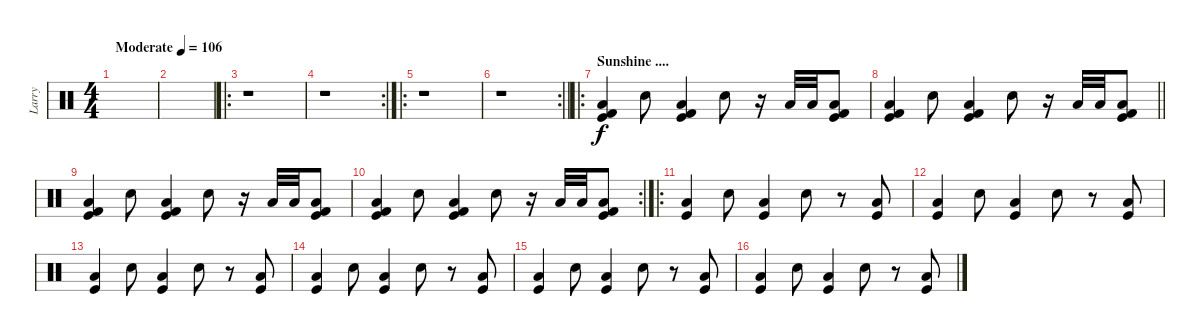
\track ("Larry" "Larry") {instrument percussion}
\staff {score}
\articulation defaults
\voice
\ts (4 4)
\tempo (106 "Moderate")
\clef neutral
\ks c
|
|
\ro
r.1 |
\rc 2
r.1 |
\ro
r.1 |
\rc 2
\barLineRight lightlight
r.1 |
\ro
\section ("" "Sunshine ....")
("Low Tom (hit)" "Kick (hit) 2" "Kick (hit)").4 "Snare (hit) 2".8 ("Low Tom (hit)" "Kick (hit) 2" "Kick (hit)").4 "Snare (hit) 2".8 r.16 "Low Tom (hit)".32 "Low Tom (hit)".32 ("Low Tom (hit)" "Kick (hit) 2" "Kick (hit)").8 |
\barLineRight lightlight
("Low Tom (hit)" "Kick (hit) 2" "Kick (hit)").4 "Snare (hit) 2".8 ("Low Tom (hit)" "Kick (hit) 2" "Kick (hit)").4 "Snare (hit) 2".8 r.16 "Low Tom (hit)".32 "Low Tom (hit)".32 ("Low Tom (hit)" "Kick (hit) 2" "Kick (hit)").8 |
("Low Tom (hit)" "Kick (hit) 2" "Kick (hit)").4 "Snare (hit) 2".8 ("Low Tom (hit)" "Kick (hit) 2" "Kick (hit)").4 "Snare (hit) 2".8 r.16 "Low Tom (hit)".32 "Low Tom (hit)".32 ("Low Tom (hit)" "Kick (hit) 2" "Kick (hit)").8 |
\rc 2
("Low Tom (hit)" "Kick (hit) 2" "Kick (hit)").4 "Snare (hit) 2".8 ("Low Tom (hit)" "Kick (hit) 2" "Kick (hit)").4 "Snare (hit) 2".8 r.16 "Low Tom (hit)".32 "Low Tom (hit)".32 ("Low Tom (hit)" "Kick (hit) 2" "Kick (hit)").8 |
\ro
("Low Tom (hit)" "Kick (hit)").4 "Snare (hit) 2".8 ("Low Tom (hit)" "Kick (hit)").4 "Snare (hit) 2".8 r.8 ("Low Tom (hit)" "Kick (hit)").8 |
("Low Tom (hit)" "Kick (hit)").4 "Snare (hit) 2".8 ("Low Tom (hit)" "Kick (hit)").4 "Snare (hit) 2".8 r.8 ("Low Tom (hit)" "Kick (hit)").8 |
("Low Tom (hit)" "Kick (hit)").4 "Snare (hit) 2".8 ("Low Tom (hit)" "Kick (hit)").4 "Snare (hit) 2".8 r.8 ("Low Tom (hit)" "Kick (hit)").8 |
("Low Tom (hit)" "Kick (hit)").4 "Snare (hit) 2".8 ("Low Tom (hit)" "Kick (hit)").4 "Snare (hit) 2".8 r.8 ("Low Tom (hit)" "Kick (hit)").8 |
("Low Tom (hit)" "Kick (hit)").4 "Snare (hit) 2".8 ("Low Tom (hit)" "Kick (hit)").4 "Snare (hit) 2".8 r.8 ("Low Tom (hit)" "Kick (hit)").8 |
("Low Tom (hit)" "Kick (hit)").4 "Snare (hit) 2".8 ("Low Tom (hit)" "Kick (hit)").4 "Snare (hit) 2".8 r.8 ("Low Tom (hit)" "Kick (hit)").8
\voice
\clef neutral
\ottava regular
\simile none
\ks c
|
|
|
|
r.1 |
\barLineRight lightlight
r.1 |
|
\barLineRight lightlight
|
|
|
|
|
|
|
|
